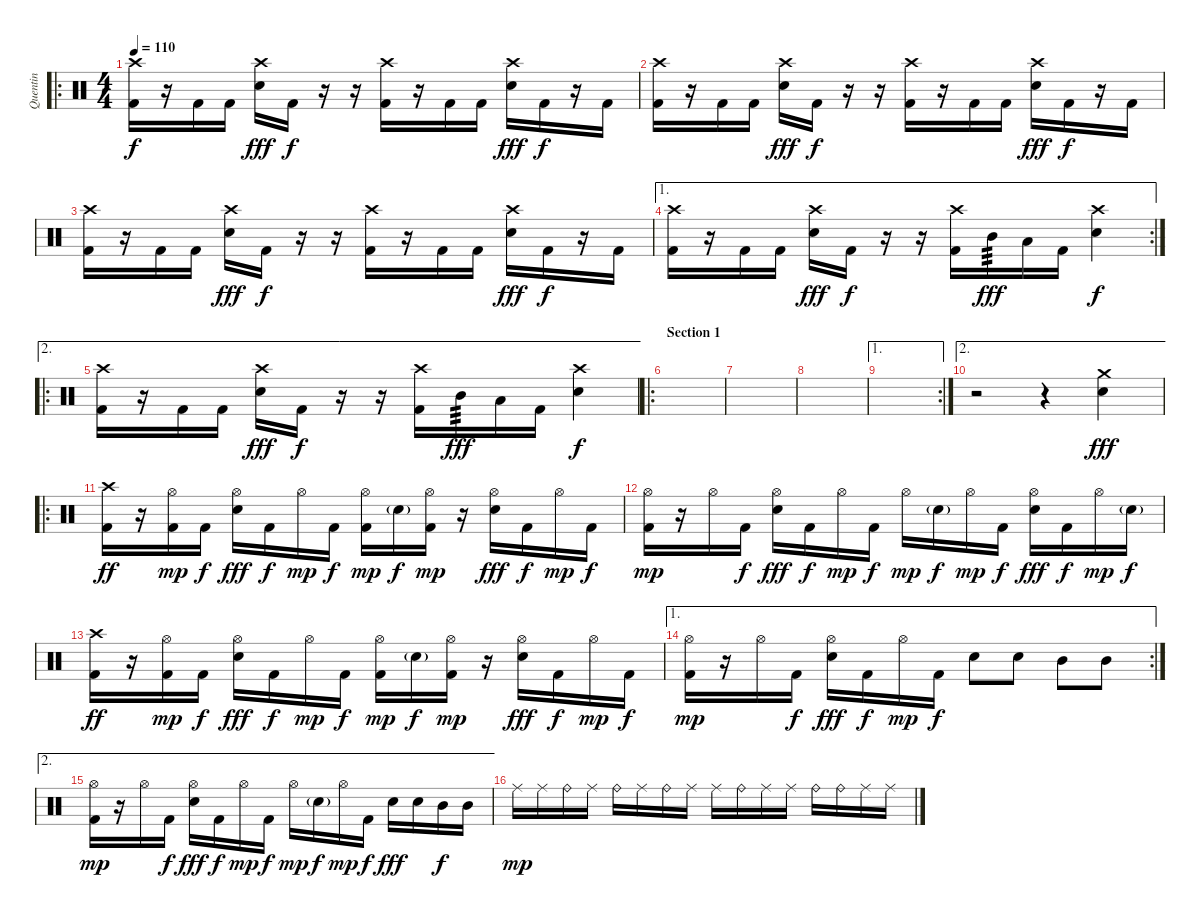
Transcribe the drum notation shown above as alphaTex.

\track ("Quentin" "Quentin") {instrument percussion}
\staff {score}
\articulation defaults
\ro
\ts (4 4)
\tempo 110
\clef neutral
\ks c
("Crash high (hit)" "Kick (hit) 2").16{dy f} r.16 "Kick (hit) 2".16 "Kick (hit) 2".16 ("Crash high (hit)" "Electric Snare (hit)").16{dy fff} "Kick (hit) 2".16{dy f} r.16 r.16 ("Crash high (hit)" "Kick (hit) 2").16 r.16 "Kick (hit) 2".16 "Kick (hit) 2".16 ("Crash high (hit)" "Electric Snare (hit)").16{dy fff} "Kick (hit) 2".16{dy f} r.16 "Kick (hit) 2".16 |
("Crash high (hit)" "Kick (hit) 2").16 r.16 "Kick (hit) 2".16 "Kick (hit) 2".16 ("Crash high (hit)" "Electric Snare (hit)").16{dy fff} "Kick (hit) 2".16{dy f} r.16 r.16 ("Crash high (hit)" "Kick (hit) 2").16 r.16 "Kick (hit) 2".16 "Kick (hit) 2".16 ("Crash high (hit)" "Electric Snare (hit)").16{dy fff} "Kick (hit) 2".16{dy f} r.16 "Kick (hit) 2".16 |
("Crash high (hit)" "Kick (hit) 2").16 r.16 "Kick (hit) 2".16 "Kick (hit) 2".16 ("Crash high (hit)" "Electric Snare (hit)").16{dy fff} "Kick (hit) 2".16{dy f} r.16 r.16 ("Crash high (hit)" "Kick (hit) 2").16 r.16 "Kick (hit) 2".16 "Kick (hit) 2".16 ("Crash high (hit)" "Electric Snare (hit)").16{dy fff} "Kick (hit) 2".16{dy f} r.16 "Kick (hit) 2".16 |
\ae 1
\rc 2
("Crash high (hit)" "Kick (hit) 2").16 r.16 "Kick (hit) 2".16 "Kick (hit) 2".16 ("Crash high (hit)" "Electric Snare (hit)").16{dy fff} "Kick (hit) 2".16{dy f} r.16 r.16 ("Crash high (hit)" "Kick (hit) 2").16 "Mid Tom (hit)".16{tp 3 dy fff} "Low Tom (hit)".16 "Kick (hit) 2".16 ("Crash high (hit)" "Electric Snare (hit)").4{dy f} |
\ae 2
\ro
("Crash high (hit)" "Kick (hit) 2").16 r.16 "Kick (hit) 2".16 "Kick (hit) 2".16 ("Crash high (hit)" "Electric Snare (hit)").16{dy fff} "Kick (hit) 2".16{dy f} r.16 r.16 ("Crash high (hit)" "Kick (hit) 2").16 "Mid Tom (hit)".16{tp 3 dy fff} "Low Tom (hit)".16 "Kick (hit) 2".16 ("Crash high (hit)" "Electric Snare (hit)").4{dy f} |
\ro
\section ("" "Section 1")
|
|
|
\ae 1
\rc 2
|
\ae 2
r.2 r.4 ("Crash medium (hit)" "Electric Snare (hit)").4{dy fff} |
\ro
("Crash high (hit)" "Kick (hit) 2").16{dy ff} r.16 ("Hi-Hat (open)" "Kick (hit) 2").16{dy mp} "Kick (hit) 2".16{dy f} ("Hi-Hat (open)" "Electric Snare (hit)").16{dy fff} "Kick (hit) 2".16{dy f} "Hi-Hat (open)".16{dy mp} "Kick (hit) 2".16{dy f} ("Hi-Hat (open)" "Kick (hit) 2").16{dy mp} "Electric Snare (hit)"{g}.16{dy f} ("Hi-Hat (open)" "Kick (hit) 2").16{dy mp} r.16 ("Hi-Hat (open)" "Electric Snare (hit)").16{dy fff} "Kick (hit) 2".16{dy f} "Hi-Hat (open)".16{dy mp} "Kick (hit) 2".16{dy f} |
("Hi-Hat (open)" "Kick (hit) 2").16{dy mp} r.16 "Hi-Hat (open)".16 "Kick (hit) 2".16{dy f} ("Hi-Hat (open)" "Electric Snare (hit)").16{dy fff} "Kick (hit) 2".16{dy f} "Hi-Hat (open)".16{dy mp} "Kick (hit) 2".16{dy f} "Hi-Hat (open)".16{dy mp} "Electric Snare (hit)"{g}.16{dy f} "Hi-Hat (open)".16{dy mp} "Kick (hit) 2".16{dy f} ("Hi-Hat (open)" "Electric Snare (hit)").16{dy fff} "Kick (hit) 2".16{dy f} "Hi-Hat (open)".16{dy mp} "Electric Snare (hit)"{g}.16{dy f} |
("Crash high (hit)" "Kick (hit) 2").16{dy ff} r.16 ("Hi-Hat (open)" "Kick (hit) 2").16{dy mp} "Kick (hit) 2".16{dy f} ("Hi-Hat (open)" "Electric Snare (hit)").16{dy fff} "Kick (hit) 2".16{dy f} "Hi-Hat (open)".16{dy mp} "Kick (hit) 2".16{dy f} ("Hi-Hat (open)" "Kick (hit) 2").16{dy mp} "Electric Snare (hit)"{g}.16{dy f} ("Hi-Hat (open)" "Kick (hit) 2").16{dy mp} r.16 ("Hi-Hat (open)" "Electric Snare (hit)").16{dy fff} "Kick (hit) 2".16{dy f} "Hi-Hat (open)".16{dy mp} "Kick (hit) 2".16{dy f} |
\ae 1
\rc 2
("Hi-Hat (open)" "Kick (hit) 2").16{dy mp} r.16 "Hi-Hat (open)".16 "Kick (hit) 2".16{dy f} ("Hi-Hat (open)" "Electric Snare (hit)").16{dy fff} "Kick (hit) 2".16{dy f} "Hi-Hat (open)".16{dy mp} "Kick (hit) 2".16{dy f} "Electric Snare (hit)".8 "Electric Snare (hit)".8 "Mid Tom (hit)".8 "Mid Tom (hit)".8 |
\ae 2
("Hi-Hat (open)" "Kick (hit) 2").16{dy mp} r.16 "Hi-Hat (open)".16 "Kick (hit) 2".16{dy f} ("Hi-Hat (open)" "Electric Snare (hit)").16{dy fff} "Kick (hit) 2".16{dy f} "Hi-Hat (open)".16{dy mp} "Kick (hit) 2".16{dy f} "Hi-Hat (open)".16{dy mp} "Electric Snare (hit)"{g}.16{dy f} "Hi-Hat (open)".16{dy mp} "Kick (hit) 2".16{dy f} "Electric Snare (hit)".16{dy fff} "Electric Snare (hit)".16 "Mid Tom (hit)".16{dy f} "Mid Tom (hit)".16 |
"Ride (middle)".16{dy mp} "Ride (middle)".16 "Ride (bell)".16 "Ride (middle)".16 "Ride (bell)".16 "Ride (middle)".16 "Ride (bell)".16 "Ride (middle)".16 "Ride (middle)".16 "Ride (bell)".16 "Ride (middle)".16 "Ride (middle)".16 "Ride (bell)".16 "Ride (bell)".16 "Ride (middle)".16 "Ride (middle)".16
